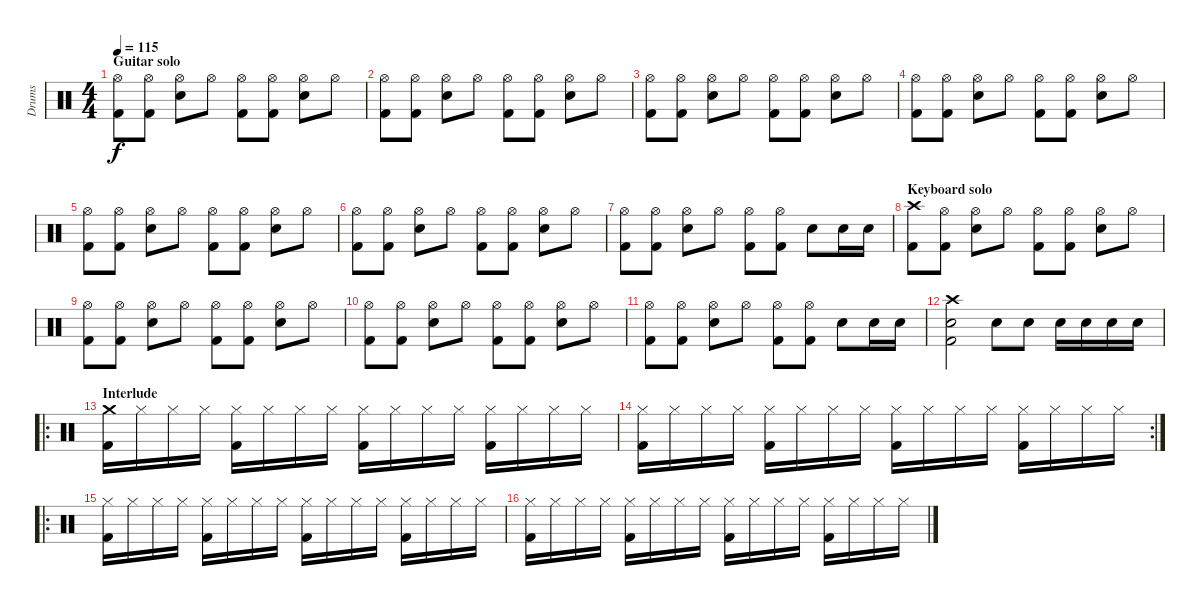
\track ("Drums" "Drums") {instrument percussion}
\staff {score}
\articulation defaults
\ts (4 4)
\section ("" "Guitar solo ")
\tempo 115
\clef neutral
\ks c
("Hi-Hat (open)" "Kick (hit) 2").8{dy f} ("Hi-Hat (open)" "Kick (hit) 2").8 ("Hi-Hat (open)" "Electric Snare (hit)").8 "Hi-Hat (open)".8 ("Hi-Hat (open)" "Kick (hit) 2").8 ("Hi-Hat (open)" "Kick (hit) 2").8 ("Hi-Hat (open)" "Electric Snare (hit)").8 "Hi-Hat (open)".8 |
("Hi-Hat (open)" "Kick (hit) 2").8 ("Hi-Hat (open)" "Kick (hit) 2").8 ("Hi-Hat (open)" "Electric Snare (hit)").8 "Hi-Hat (open)".8 ("Hi-Hat (open)" "Kick (hit) 2").8 ("Hi-Hat (open)" "Kick (hit) 2").8 ("Hi-Hat (open)" "Electric Snare (hit)").8 "Hi-Hat (open)".8 |
("Hi-Hat (open)" "Kick (hit) 2").8 ("Hi-Hat (open)" "Kick (hit) 2").8 ("Hi-Hat (open)" "Electric Snare (hit)").8 "Hi-Hat (open)".8 ("Hi-Hat (open)" "Kick (hit) 2").8 ("Hi-Hat (open)" "Kick (hit) 2").8 ("Hi-Hat (open)" "Electric Snare (hit)").8 "Hi-Hat (open)".8 |
("Hi-Hat (open)" "Kick (hit) 2").8 ("Hi-Hat (open)" "Kick (hit) 2").8 ("Hi-Hat (open)" "Electric Snare (hit)").8 "Hi-Hat (open)".8 ("Hi-Hat (open)" "Kick (hit) 2").8 ("Hi-Hat (open)" "Kick (hit) 2").8 ("Hi-Hat (open)" "Electric Snare (hit)").8 "Hi-Hat (open)".8 |
("Hi-Hat (open)" "Kick (hit) 2").8 ("Hi-Hat (open)" "Kick (hit) 2").8 ("Hi-Hat (open)" "Electric Snare (hit)").8 "Hi-Hat (open)".8 ("Hi-Hat (open)" "Kick (hit) 2").8 ("Hi-Hat (open)" "Kick (hit) 2").8 ("Hi-Hat (open)" "Electric Snare (hit)").8 "Hi-Hat (open)".8 |
("Hi-Hat (open)" "Kick (hit) 2").8 ("Hi-Hat (open)" "Kick (hit) 2").8 ("Hi-Hat (open)" "Electric Snare (hit)").8 "Hi-Hat (open)".8 ("Hi-Hat (open)" "Kick (hit) 2").8 ("Hi-Hat (open)" "Kick (hit) 2").8 ("Hi-Hat (open)" "Electric Snare (hit)").8 "Hi-Hat (open)".8 |
("Hi-Hat (open)" "Kick (hit) 2").8 ("Hi-Hat (open)" "Kick (hit) 2").8 ("Hi-Hat (open)" "Electric Snare (hit)").8 "Hi-Hat (open)".8 ("Hi-Hat (open)" "Kick (hit) 2").8 ("Hi-Hat (open)" "Kick (hit) 2").8 "Electric Snare (hit)".8 "Electric Snare (hit)".16 "Electric Snare (hit)".16 |
\section ("" "Keyboard solo")
("Crash high (hit)" "Kick (hit) 2").8 ("Hi-Hat (open)" "Kick (hit) 2").8 ("Hi-Hat (open)" "Electric Snare (hit)").8 "Hi-Hat (open)".8 ("Hi-Hat (open)" "Kick (hit) 2").8 ("Hi-Hat (open)" "Kick (hit) 2").8 ("Hi-Hat (open)" "Electric Snare (hit)").8 "Hi-Hat (open)".8 |
("Hi-Hat (open)" "Kick (hit) 2").8 ("Hi-Hat (open)" "Kick (hit) 2").8 ("Hi-Hat (open)" "Electric Snare (hit)").8 "Hi-Hat (open)".8 ("Hi-Hat (open)" "Kick (hit) 2").8 ("Hi-Hat (open)" "Kick (hit) 2").8 ("Hi-Hat (open)" "Electric Snare (hit)").8 "Hi-Hat (open)".8 |
("Hi-Hat (open)" "Kick (hit) 2").8 ("Hi-Hat (open)" "Kick (hit) 2").8 ("Hi-Hat (open)" "Electric Snare (hit)").8 "Hi-Hat (open)".8 ("Hi-Hat (open)" "Kick (hit) 2").8 ("Hi-Hat (open)" "Kick (hit) 2").8 ("Hi-Hat (open)" "Electric Snare (hit)").8 "Hi-Hat (open)".8 |
("Hi-Hat (open)" "Kick (hit) 2").8 ("Hi-Hat (open)" "Kick (hit) 2").8 ("Hi-Hat (open)" "Electric Snare (hit)").8 "Hi-Hat (open)".8 ("Hi-Hat (open)" "Kick (hit) 2").8 ("Hi-Hat (open)" "Kick (hit) 2").8 "Electric Snare (hit)".8 "Electric Snare (hit)".16 "Electric Snare (hit)".16 |
("Crash high (hit)" "Kick (hit) 2" "Electric Snare (hit)").2 "Electric Snare (hit)".8 "Electric Snare (hit)".8 "Electric Snare (hit)".16 "Electric Snare (hit)".16 "Electric Snare (hit)".16 "Electric Snare (hit)".16 |
\ro
\section ("" "Interlude")
("Crash medium (hit)" "Kick (hit) 2").16 "Hi-Hat (closed)".16 "Hi-Hat (closed)".16 "Hi-Hat (closed)".16 ("Hi-Hat (closed)" "Kick (hit) 2").16 "Hi-Hat (closed)".16 "Hi-Hat (closed)".16 "Hi-Hat (closed)".16 ("Hi-Hat (closed)" "Kick (hit) 2").16 "Hi-Hat (closed)".16 "Hi-Hat (closed)".16 "Hi-Hat (closed)".16 ("Hi-Hat (closed)" "Kick (hit) 2").16 "Hi-Hat (closed)".16 "Hi-Hat (closed)".16 "Hi-Hat (closed)".16 |
\rc 2
("Hi-Hat (closed)" "Kick (hit) 2").16 "Hi-Hat (closed)".16 "Hi-Hat (closed)".16 "Hi-Hat (closed)".16 ("Hi-Hat (closed)" "Kick (hit) 2").16 "Hi-Hat (closed)".16 "Hi-Hat (closed)".16 "Hi-Hat (closed)".16 ("Hi-Hat (closed)" "Kick (hit) 2").16 "Hi-Hat (closed)".16 "Hi-Hat (closed)".16 "Hi-Hat (closed)".16 ("Hi-Hat (closed)" "Kick (hit) 2").16 "Hi-Hat (closed)".16 "Hi-Hat (closed)".16 "Hi-Hat (closed)".16 |
\ro
("Hi-Hat (closed)" "Kick (hit) 2").16 "Hi-Hat (closed)".16 "Hi-Hat (closed)".16 "Hi-Hat (closed)".16 ("Hi-Hat (closed)" "Kick (hit) 2").16 "Hi-Hat (closed)".16 "Hi-Hat (closed)".16 "Hi-Hat (closed)".16 ("Hi-Hat (closed)" "Kick (hit) 2").16 "Hi-Hat (closed)".16 "Hi-Hat (closed)".16 "Hi-Hat (closed)".16 ("Hi-Hat (closed)" "Kick (hit) 2").16 "Hi-Hat (closed)".16 "Hi-Hat (closed)".16 "Hi-Hat (closed)".16 |
("Hi-Hat (closed)" "Kick (hit) 2").16 "Hi-Hat (closed)".16 "Hi-Hat (closed)".16 "Hi-Hat (closed)".16 ("Hi-Hat (closed)" "Kick (hit) 2").16 "Hi-Hat (closed)".16 "Hi-Hat (closed)".16 "Hi-Hat (closed)".16 ("Hi-Hat (closed)" "Kick (hit) 2").16 "Hi-Hat (closed)".16 "Hi-Hat (closed)".16 "Hi-Hat (closed)".16 ("Hi-Hat (closed)" "Kick (hit) 2").16 "Hi-Hat (closed)".16 "Hi-Hat (closed)".16 "Hi-Hat (closed)".16
